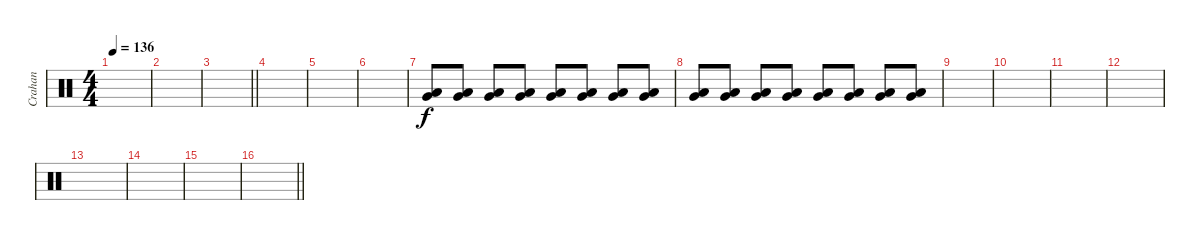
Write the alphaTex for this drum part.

\track ("Crahan" "Crahan") {instrument percussion}
\staff {score}
\articulation defaults
\ts (4 4)
\tempo 136
\clef neutral
\ks c
|
|
\barLineRight lightlight
|
|
|
|
("Very Low Tom (hit)" "Low Floor Tom (hit)").8 ("Very Low Tom (hit)" "Low Floor Tom (hit)").8 ("Very Low Tom (hit)" "Low Floor Tom (hit)").8 ("Very Low Tom (hit)" "Low Floor Tom (hit)").8 ("Very Low Tom (hit)" "Low Floor Tom (hit)").8 ("Very Low Tom (hit)" "Low Floor Tom (hit)").8 ("Very Low Tom (hit)" "Low Floor Tom (hit)").8 ("Very Low Tom (hit)" "Low Floor Tom (hit)").8 |
("Very Low Tom (hit)" "Low Floor Tom (hit)").8 ("Very Low Tom (hit)" "Low Floor Tom (hit)").8 ("Very Low Tom (hit)" "Low Floor Tom (hit)").8 ("Very Low Tom (hit)" "Low Floor Tom (hit)").8 ("Very Low Tom (hit)" "Low Floor Tom (hit)").8 ("Very Low Tom (hit)" "Low Floor Tom (hit)").8 ("Very Low Tom (hit)" "Low Floor Tom (hit)").8 ("Very Low Tom (hit)" "Low Floor Tom (hit)").8 |
|
|
|
|
|
|
|
\barLineRight lightlight
